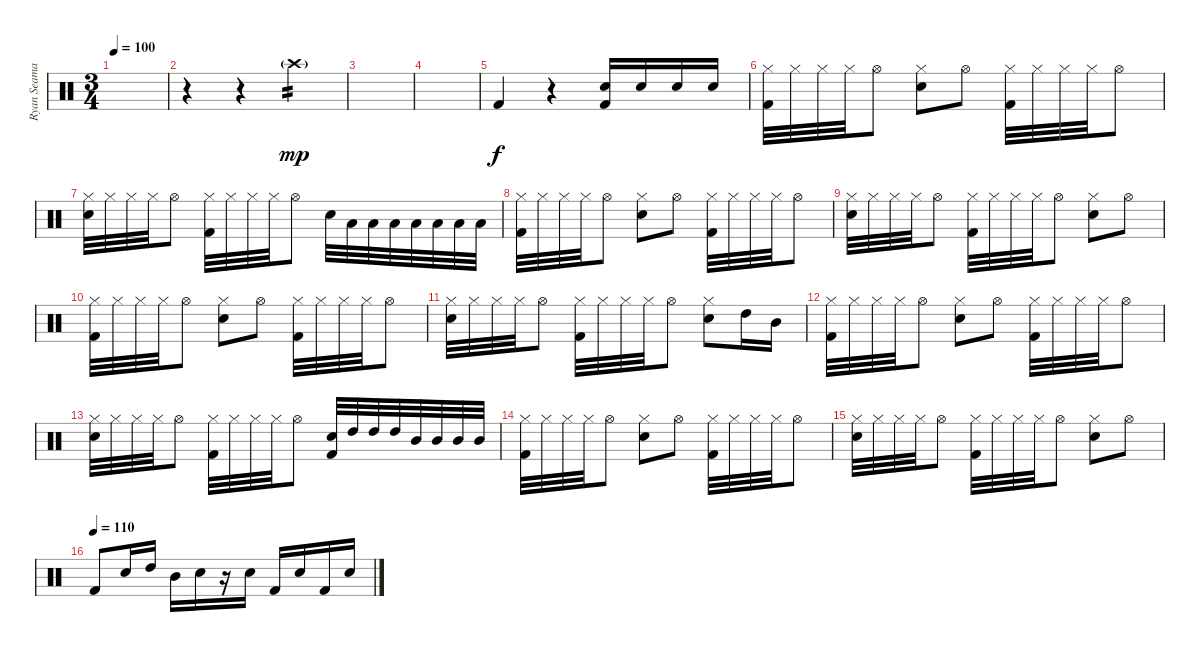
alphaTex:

\track ("Ryan Seaman-Drums" "Ryan Seama") {instrument percussion}
\staff {score}
\articulation defaults
\ts (3 4)
\tempo 100
\clef neutral
\ks c
|
r.4 r.4 "Crash high (hit)"{g}.4{tp 2 dy mp} |
|
|
"Kick (hit) 2".4{dy f} r.4 ("Kick (hit) 2" "Electric Snare (hit)").16 "Electric Snare (hit)".16 "Electric Snare (hit)".16 "Electric Snare (hit)".16 |
("Kick (hit) 2" "Hi-Hat (closed)").32 "Hi-Hat (closed)".32 "Hi-Hat (closed)".32 "Hi-Hat (closed)".32 "Hi-Hat (open)".8 ("Hi-Hat (closed)" "Electric Snare (hit)").8 "Hi-Hat (open)".8 ("Kick (hit) 2" "Hi-Hat (closed)").32 "Hi-Hat (closed)".32 "Hi-Hat (closed)".32 "Hi-Hat (closed)".32 "Hi-Hat (open)".8 |
("Hi-Hat (closed)" "Electric Snare (hit)").32 "Hi-Hat (closed)".32 "Hi-Hat (closed)".32 "Hi-Hat (closed)".32 "Hi-Hat (open)".8 ("Hi-Hat (closed)" "Kick (hit) 2").32 "Hi-Hat (closed)".32 "Hi-Hat (closed)".32 "Hi-Hat (closed)".32 "Hi-Hat (open)".8 "Electric Snare (hit)".32 "Low Floor Tom (hit)".32 "Low Floor Tom (hit)".32 "Low Floor Tom (hit)".32 "Low Tom (hit)".32 "Low Tom (hit)".32 "Low Tom (hit)".32 "Low Tom (hit)".32 |
("Kick (hit) 2" "Hi-Hat (closed)").32 "Hi-Hat (closed)".32 "Hi-Hat (closed)".32 "Hi-Hat (closed)".32 "Hi-Hat (open)".8 ("Hi-Hat (closed)" "Electric Snare (hit)").8 "Hi-Hat (open)".8 ("Kick (hit) 2" "Hi-Hat (closed)").32 "Hi-Hat (closed)".32 "Hi-Hat (closed)".32 "Hi-Hat (closed)".32 "Hi-Hat (open)".8 |
("Hi-Hat (closed)" "Electric Snare (hit)").32 "Hi-Hat (closed)".32 "Hi-Hat (closed)".32 "Hi-Hat (closed)".32 "Hi-Hat (open)".8 ("Hi-Hat (closed)" "Kick (hit) 2").32 "Hi-Hat (closed)".32 "Hi-Hat (closed)".32 "Hi-Hat (closed)".32 "Hi-Hat (open)".8 ("Electric Snare (hit)" "Hi-Hat (closed)").8 "Hi-Hat (open)".8 |
("Kick (hit) 2" "Hi-Hat (closed)").32 "Hi-Hat (closed)".32 "Hi-Hat (closed)".32 "Hi-Hat (closed)".32 "Hi-Hat (open)".8 ("Hi-Hat (closed)" "Electric Snare (hit)").8 "Hi-Hat (open)".8 ("Kick (hit) 2" "Hi-Hat (closed)").32 "Hi-Hat (closed)".32 "Hi-Hat (closed)".32 "Hi-Hat (closed)".32 "Hi-Hat (open)".8 |
("Hi-Hat (closed)" "Electric Snare (hit)").32 "Hi-Hat (closed)".32 "Hi-Hat (closed)".32 "Hi-Hat (closed)".32 "Hi-Hat (open)".8 ("Hi-Hat (closed)" "Kick (hit) 2").32 "Hi-Hat (closed)".32 "Hi-Hat (closed)".32 "Hi-Hat (closed)".32 "Hi-Hat (open)".8 ("Electric Snare (hit)" "Hi-Hat (closed)").8 "High Tom (hit)".16 "Mid Tom (hit)".16 |
("Kick (hit) 2" "Hi-Hat (closed)").32 "Hi-Hat (closed)".32 "Hi-Hat (closed)".32 "Hi-Hat (closed)".32 "Hi-Hat (open)".8 ("Hi-Hat (closed)" "Electric Snare (hit)").8 "Hi-Hat (open)".8 ("Kick (hit) 2" "Hi-Hat (closed)").32 "Hi-Hat (closed)".32 "Hi-Hat (closed)".32 "Hi-Hat (closed)".32 "Hi-Hat (open)".8 |
("Hi-Hat (closed)" "Electric Snare (hit)").32 "Hi-Hat (closed)".32 "Hi-Hat (closed)".32 "Hi-Hat (closed)".32 "Hi-Hat (open)".8 ("Hi-Hat (closed)" "Kick (hit) 2").32 "Hi-Hat (closed)".32 "Hi-Hat (closed)".32 "Hi-Hat (closed)".32 "Hi-Hat (open)".8 ("Electric Snare (hit)" "Kick (hit) 2").32 "High Tom (hit)".32 "High Tom (hit)".32 "High Tom (hit)".32 "Mid Tom (hit)".32 "Mid Tom (hit)".32 "Mid Tom (hit)".32 "Mid Tom (hit)".32 |
("Kick (hit) 2" "Hi-Hat (closed)").32 "Hi-Hat (closed)".32 "Hi-Hat (closed)".32 "Hi-Hat (closed)".32 "Hi-Hat (open)".8 ("Hi-Hat (closed)" "Electric Snare (hit)").8 "Hi-Hat (open)".8 ("Kick (hit) 2" "Hi-Hat (closed)").32 "Hi-Hat (closed)".32 "Hi-Hat (closed)".32 "Hi-Hat (closed)".32 "Hi-Hat (open)".8 |
("Hi-Hat (closed)" "Electric Snare (hit)").32 "Hi-Hat (closed)".32 "Hi-Hat (closed)".32 "Hi-Hat (closed)".32 "Hi-Hat (open)".8 ("Hi-Hat (closed)" "Kick (hit) 2").32 "Hi-Hat (closed)".32 "Hi-Hat (closed)".32 "Hi-Hat (closed)".32 "Hi-Hat (open)".8 ("Electric Snare (hit)" "Hi-Hat (closed)").8 "Hi-Hat (open)".8 |
\tempo (110)
"Kick (hit) 2".8 "Electric Snare (hit)".16 "High Tom (hit)".16 "Mid Tom (hit)".16 "Electric Snare (hit)".16 r.16 "Electric Snare (hit)".16 "Kick (hit) 2".16 "Electric Snare (hit)".16 "Kick (hit) 2".16 "Electric Snare (hit)".16
